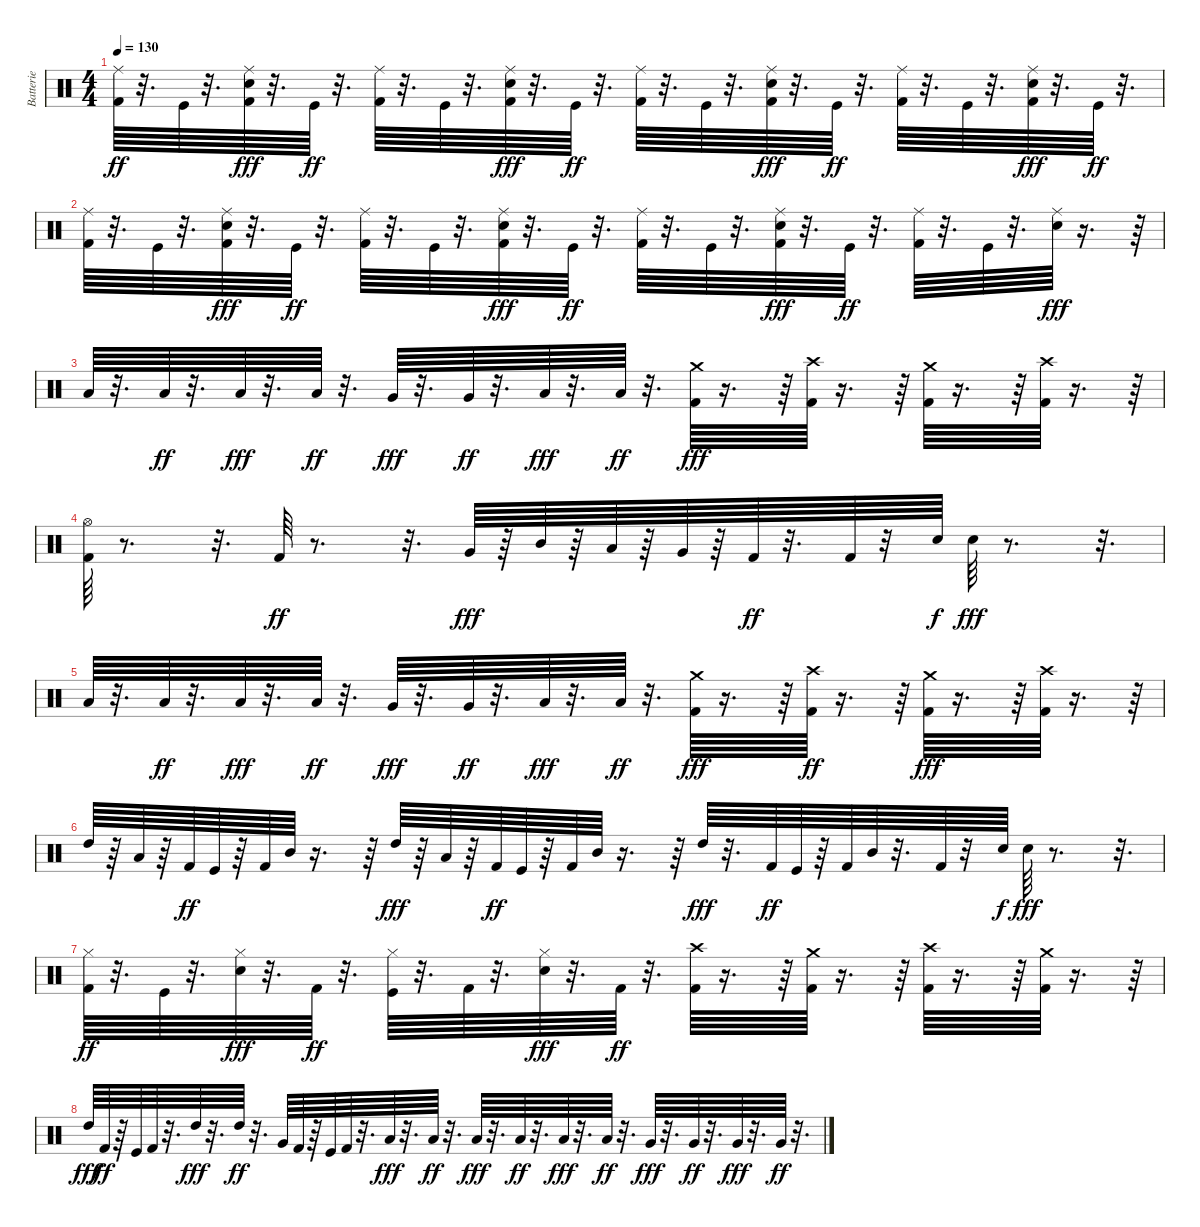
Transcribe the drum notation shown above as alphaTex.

\track ("Batterie" "Batterie") {instrument percussion}
\staff {score}
\articulation defaults
\ts (4 4)
\tempo 130
\clef neutral
\ks c
("Kick (hit) 2" "Ride (middle)").64{dy ff} r.32{d} "Kick (hit)".64 r.32{d} ("Kick (hit) 2" "Snare (hit) 2" "Ride (middle)").64{dy fff} r.32{d} "Kick (hit)".64{dy ff} r.32{d} ("Kick (hit) 2" "Ride (middle)").64 r.32{d} "Kick (hit)".64 r.32{d} ("Kick (hit) 2" "Snare (hit) 2" "Ride (middle)").64{dy fff} r.32{d} "Kick (hit)".64{dy ff} r.32{d} ("Kick (hit) 2" "Ride (middle)").64 r.32{d} "Kick (hit)".64 r.32{d} ("Kick (hit) 2" "Snare (hit) 2" "Ride (middle)").64{dy fff} r.32{d} "Kick (hit)".64{dy ff} r.32{d} ("Kick (hit) 2" "Ride (middle)").64 r.32{d} "Kick (hit)".64 r.32{d} ("Kick (hit) 2" "Snare (hit) 2" "Ride (middle)").64{dy fff} r.32{d} "Kick (hit)".64{dy ff} r.32{d} |
("Kick (hit) 2" "Ride (middle)").64 r.32{d} "Kick (hit)".64 r.32{d} ("Kick (hit) 2" "Snare (hit) 2" "Ride (middle)").64{dy fff} r.32{d} "Kick (hit)".64{dy ff} r.32{d} ("Kick (hit) 2" "Ride (middle)").64 r.32{d} "Kick (hit)".64 r.32{d} ("Kick (hit) 2" "Snare (hit) 2" "Ride (middle)").64{dy fff} r.32{d} "Kick (hit)".64{dy ff} r.32{d} ("Kick (hit) 2" "Ride (middle)").64 r.32{d} "Kick (hit)".64 r.32{d} ("Kick (hit) 2" "Snare (hit) 2" "Ride (middle)").64{dy fff} r.32{d} "Kick (hit)".64{dy ff} r.32{d} ("Kick (hit) 2" "Ride (middle)").64 r.32{d} "Kick (hit)".64 r.32{d} ("Snare (hit) 2" "Ride (middle)").64{dy fff} r.16{d} r.64 |
"Low Tom (hit)".64 r.32{d} "Low Tom (hit)".64{dy ff} r.32{d} "Low Tom (hit)".64{dy fff} r.32{d} "Low Tom (hit)".64{dy ff} r.32{d} "Very Low Tom (hit)".64{dy fff} r.32{d} "Very Low Tom (hit)".64{dy ff} r.32{d} "Low Floor Tom (hit)".64{dy fff} r.32{d} "Low Floor Tom (hit)".64{dy ff} r.32{d} ("Kick (hit) 2" "Crash medium (hit)").64{dy fff} r.16{d} r.64 ("Kick (hit) 2" "Crash high (hit)").64 r.16{d} r.64 ("Kick (hit) 2" "Crash medium (hit)").64 r.16{d} r.64 ("Kick (hit) 2" "Crash high (hit)").64 r.16{d} r.64 |
("Kick (hit) 2" "Hi-Hat (open)").64 r.8{d} r.32{d} "Kick (hit) 2".64{dy ff} r.8{d} r.32{d} "Very Low Tom (hit)".64{dy fff} r.64 "Mid Tom (hit)".64 r.64 "Low Tom (hit)".64 r.64 "Very Low Tom (hit)".64 r.64 "Kick (hit) 2".64{dy ff} r.32{d} "Kick (hit) 2".64 r.32 "Snare (hit) 2".64{dy f} "Snare (hit) 2".64{dy fff} r.8{d} r.32{d} |
"Low Tom (hit)".64 r.32{d} "Low Tom (hit)".64{dy ff} r.32{d} "Low Tom (hit)".64{dy fff} r.32{d} "Low Tom (hit)".64{dy ff} r.32{d} "Very Low Tom (hit)".64{dy fff} r.32{d} "Very Low Tom (hit)".64{dy ff} r.32{d} "Low Floor Tom (hit)".64{dy fff} r.32{d} "Low Floor Tom (hit)".64{dy ff} r.32{d} ("Kick (hit) 2" "Crash medium (hit)").64{dy fff} r.16{d} r.64 ("Crash high (hit)" "Kick (hit) 2").64{dy ff} r.16{d} r.64 ("Kick (hit) 2" "Crash medium (hit)").64{dy fff} r.16{d} r.64 ("Kick (hit) 2" "Crash high (hit)").64 r.16{d} r.64 |
"High Tom (hit)".64 r.64 "Low Tom (hit)".64 r.64 "Kick (hit) 2".64{dy ff} "Kick (hit)".64 r.64 "Kick (hit) 2".64 "Mid Tom (hit)".64 r.16{d} r.64 "High Tom (hit)".64{dy fff} r.64 "Low Tom (hit)".64 r.64 "Kick (hit) 2".64{dy ff} "Kick (hit)".64 r.64 "Kick (hit) 2".64 "Mid Tom (hit)".64 r.16{d} r.64 "High Tom (hit)".64{dy fff} r.32{d} "Kick (hit) 2".64{dy ff} "Kick (hit)".64 r.64 "Kick (hit) 2".64 "Mid Tom (hit)".64 r.32{d} "Kick (hit) 2".64 r.32 "Snare (hit) 2".64{dy f} "Snare (hit) 2".64{dy fff} r.8{d} r.32{d} |
("Hi-Hat (closed)" "Kick (hit) 2").64{dy ff} r.32{d} "Kick (hit)".64 r.32{d} ("Hi-Hat (closed)" "Snare (hit) 2").64{dy fff} r.32{d} "Kick (hit) 2".64{dy ff} r.32{d} ("Hi-Hat (closed)" "Kick (hit)").64 r.32{d} "Kick (hit) 2".64 r.32{d} ("Hi-Hat (closed)" "Snare (hit) 2").64{dy fff} r.32{d} "Kick (hit) 2".64{dy ff} r.32{d} ("Crash high (hit)" "Kick (hit) 2").64 r.16{d} r.64 ("Crash medium (hit)" "Kick (hit) 2").64 r.16{d} r.64 ("Crash high (hit)" "Kick (hit) 2").64 r.16{d} r.64 ("Crash medium (hit)" "Kick (hit) 2").64 r.16{d} r.64 |
"High Tom (hit)".64{dy fff} "Kick (hit) 2".64{dy ff} r.64 "Kick (hit)".64 "Kick (hit) 2".64 r.32{d} "High Tom (hit)".64{dy fff} r.32{d} "High Tom (hit)".64{dy ff} r.32{d} "Very Low Tom (hit)".64 "Kick (hit) 2".64 r.64 "Kick (hit)".64 "Kick (hit) 2".64 r.32{d} "Low Tom (hit)".64{dy fff} r.32{d} "Low Tom (hit)".64{dy ff} r.32{d} "Low Tom (hit)".64{dy fff} r.32{d} "Low Tom (hit)".64{dy ff} r.32{d} "Low Tom (hit)".64{dy fff} r.32{d} "Low Tom (hit)".64{dy ff} r.32{d} "Very Low Tom (hit)".64{dy fff} r.32{d} "Very Low Tom (hit)".64{dy ff} r.32{d} "Very Low Tom (hit)".64{dy fff} r.32{d} "Very Low Tom (hit)".64{dy ff} r.32{d}
